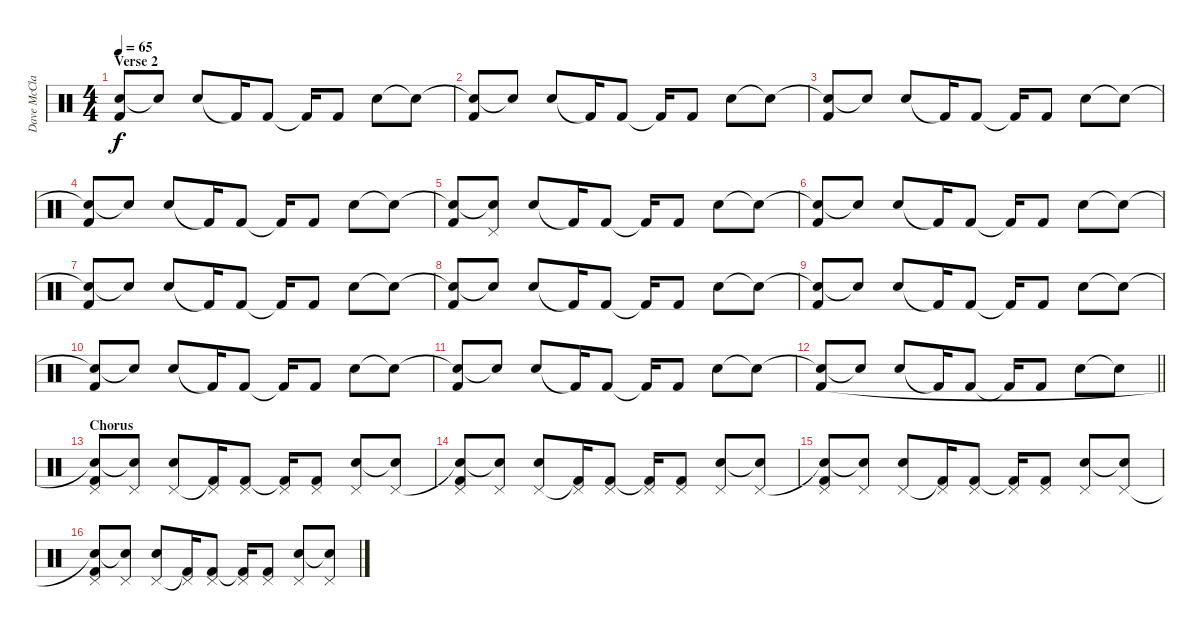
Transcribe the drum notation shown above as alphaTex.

\track ("Dave McClain" "Dave McCla") {instrument percussion bank 8}
\staff {score}
\articulation defaults
\ts (4 4)
\section ("" "Verse 2")
\tempo 65
\clef neutral
\ks c
("Snare (hit)"{t} "Kick (hit) 2").8{dy f} "Snare (hit)"{t}.8 "Electric Snare (hit)".8 "Kick (hit) 2"{t}.16 "Kick (hit) 2".8 "Kick (hit) 2"{t}.16 "Kick (hit) 2".8 "Electric Snare (hit)".8 "Snare (hit)"{t}.8 |
("Snare (hit)"{t} "Kick (hit) 2").8 "Snare (hit)"{t}.8 "Electric Snare (hit)".8 "Kick (hit) 2"{t}.16 "Kick (hit) 2".8 "Kick (hit) 2"{t}.16 "Kick (hit) 2".8 "Electric Snare (hit)".8 "Snare (hit)"{t}.8 |
("Snare (hit)"{t} "Kick (hit) 2").8 "Snare (hit)"{t}.8 "Electric Snare (hit)".8 "Kick (hit) 2"{t}.16 "Kick (hit) 2".8 "Kick (hit) 2"{t}.16 "Kick (hit) 2".8 "Electric Snare (hit)".8 "Snare (hit)"{t}.8 |
("Snare (hit)"{t} "Kick (hit) 2").8 "Snare (hit)"{t}.8 "Electric Snare (hit)".8 "Kick (hit) 2"{t}.16 "Kick (hit) 2".8 "Kick (hit) 2"{t}.16 "Kick (hit) 2".8 "Electric Snare (hit)".8 "Snare (hit)"{t}.8 |
("Snare (hit)"{t} "Kick (hit) 2").8 ("Snare (hit)"{t} "Pedal Hi-Hat (hit)").8 "Electric Snare (hit)".8 "Kick (hit) 2"{t}.16 "Kick (hit) 2".8 "Kick (hit) 2"{t}.16 "Kick (hit) 2".8 "Electric Snare (hit)".8 "Snare (hit)"{t}.8 |
("Snare (hit)"{t} "Kick (hit) 2").8 "Snare (hit)"{t}.8 "Electric Snare (hit)".8 "Kick (hit) 2"{t}.16 "Kick (hit) 2".8 "Kick (hit) 2"{t}.16 "Kick (hit) 2".8 "Electric Snare (hit)".8 "Snare (hit)"{t}.8 |
("Snare (hit)"{t} "Kick (hit) 2").8 "Snare (hit)"{t}.8 "Electric Snare (hit)".8 "Kick (hit) 2"{t}.16 "Kick (hit) 2".8 "Kick (hit) 2"{t}.16 "Kick (hit) 2".8 "Electric Snare (hit)".8 "Snare (hit)"{t}.8 |
("Snare (hit)"{t} "Kick (hit) 2").8 "Snare (hit)"{t}.8 "Electric Snare (hit)".8 "Kick (hit) 2"{t}.16 "Kick (hit) 2".8 "Kick (hit) 2"{t}.16 "Kick (hit) 2".8 "Electric Snare (hit)".8 "Snare (hit)"{t}.8 |
("Snare (hit)"{t} "Kick (hit) 2").8 "Snare (hit)"{t}.8 "Electric Snare (hit)".8 "Kick (hit) 2"{t}.16 "Kick (hit) 2".8 "Kick (hit) 2"{t}.16 "Kick (hit) 2".8 "Electric Snare (hit)".8 "Snare (hit)"{t}.8 |
("Snare (hit)"{t} "Kick (hit) 2").8 "Snare (hit)"{t}.8 "Electric Snare (hit)".8 "Kick (hit) 2"{t}.16 "Kick (hit) 2".8 "Kick (hit) 2"{t}.16 "Kick (hit) 2".8 "Electric Snare (hit)".8 "Snare (hit)"{t}.8 |
("Snare (hit)"{t} "Kick (hit) 2").8 "Snare (hit)"{t}.8 "Electric Snare (hit)".8 "Kick (hit) 2"{t}.16 "Kick (hit) 2".8 "Kick (hit) 2"{t}.16 "Kick (hit) 2".8 "Electric Snare (hit)".8 "Snare (hit)"{t}.8 |
\barLineRight lightlight
("Snare (hit)"{t} "Kick (hit) 2").8 "Snare (hit)"{t}.8 "Electric Snare (hit)".8 "Kick (hit) 2"{t}.16 "Kick (hit) 2".8 "Kick (hit) 2"{t}.16 "Kick (hit) 2".8 "Electric Snare (hit)".8 "Snare (hit)"{t}.8 |
\section ("" "Chorus")
("Pedal Hi-Hat (hit)" "Snare (hit)"{t} "Kick (hit) 2").8 ("Pedal Hi-Hat (hit)" "Snare (hit)"{t}).8 ("Electric Snare (hit)" "Pedal Hi-Hat (hit)").8 ("Pedal Hi-Hat (hit)" "Kick (hit) 2"{t}).16 ("Pedal Hi-Hat (hit)" "Kick (hit) 2").8 ("Pedal Hi-Hat (hit)" "Kick (hit) 2"{t}).16 ("Pedal Hi-Hat (hit)" "Kick (hit) 2").8 ("Electric Snare (hit)" "Pedal Hi-Hat (hit)").8 ("Snare (hit)"{t} "Pedal Hi-Hat (hit)").8 |
("Pedal Hi-Hat (hit)" "Snare (hit)"{t} "Kick (hit) 2").8 ("Pedal Hi-Hat (hit)" "Snare (hit)"{t}).8 ("Electric Snare (hit)" "Pedal Hi-Hat (hit)").8 ("Pedal Hi-Hat (hit)" "Kick (hit) 2"{t}).16 ("Pedal Hi-Hat (hit)" "Kick (hit) 2").8 ("Pedal Hi-Hat (hit)" "Kick (hit) 2"{t}).16 ("Pedal Hi-Hat (hit)" "Kick (hit) 2").8 ("Electric Snare (hit)" "Pedal Hi-Hat (hit)").8 ("Snare (hit)"{t} "Pedal Hi-Hat (hit)").8 |
("Pedal Hi-Hat (hit)" "Snare (hit)"{t} "Kick (hit) 2").8 ("Pedal Hi-Hat (hit)" "Snare (hit)"{t}).8 ("Electric Snare (hit)" "Pedal Hi-Hat (hit)").8 ("Pedal Hi-Hat (hit)" "Kick (hit) 2"{t}).16 ("Pedal Hi-Hat (hit)" "Kick (hit) 2").8 ("Pedal Hi-Hat (hit)" "Kick (hit) 2"{t}).16 ("Pedal Hi-Hat (hit)" "Kick (hit) 2").8 ("Electric Snare (hit)" "Pedal Hi-Hat (hit)").8 ("Snare (hit)"{t} "Pedal Hi-Hat (hit)").8 |
("Pedal Hi-Hat (hit)" "Snare (hit)"{t} "Kick (hit) 2").8 ("Pedal Hi-Hat (hit)" "Snare (hit)"{t}).8 ("Electric Snare (hit)" "Pedal Hi-Hat (hit)").8 ("Pedal Hi-Hat (hit)" "Kick (hit) 2"{t}).16 ("Pedal Hi-Hat (hit)" "Kick (hit) 2").8 ("Pedal Hi-Hat (hit)" "Kick (hit) 2"{t}).16 ("Pedal Hi-Hat (hit)" "Kick (hit) 2").8 ("Electric Snare (hit)" "Pedal Hi-Hat (hit)").8 ("Snare (hit)"{t} "Pedal Hi-Hat (hit)").8
